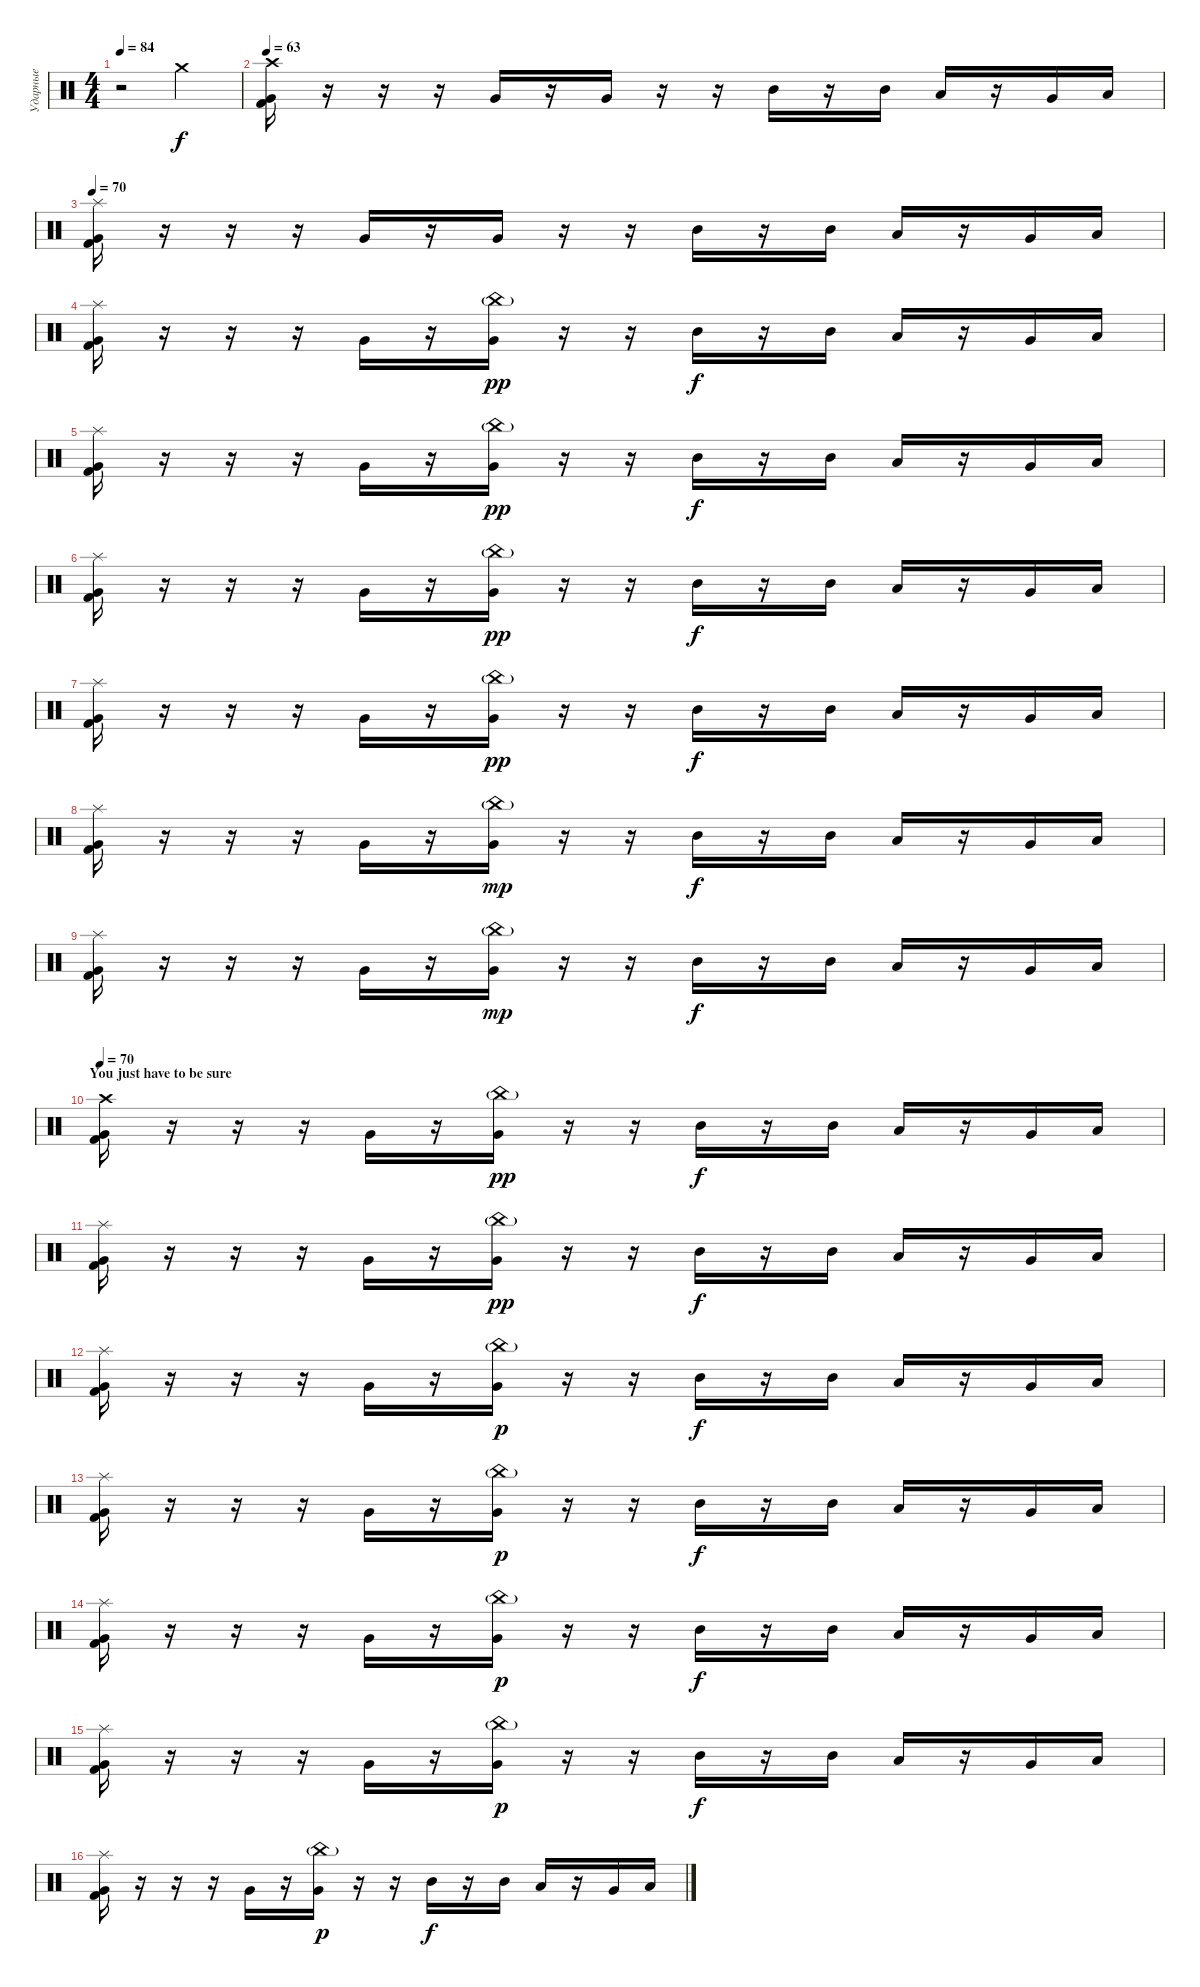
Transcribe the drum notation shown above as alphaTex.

\track ("Ударные" "Ударные") {instrument percussion}
\staff {score}
\articulation defaults
\ts (4 4)
\tempo 84
\tempo 63
\tempo 84
\clef neutral
\ks c
r.2{dy f volume 0} "Crash medium (hit)".2{volume 13} |
\tempo 63
("Crash high (hit)" "Very Low Tom (hit)" "Kick (hit) 2").16 r.16 r.16 r.16 "Very Low Tom (hit)".16 r.16 "Very Low Tom (hit)".16 r.16 r.16 "Mid Tom (hit)".16 r.16 "Mid Tom (hit)".16 "Low Tom (hit)".16 r.16 "Very Low Tom (hit)".16 "Low Tom (hit)".16 |
\tempo 70
("Splash (hit)" "Very Low Tom (hit)" "Kick (hit) 2").16 r.16 r.16 r.16 "Very Low Tom (hit)".16 r.16 "Very Low Tom (hit)".16 r.16 r.16 "Mid Tom (hit)".16 r.16 "Mid Tom (hit)".16 "Low Tom (hit)".16 r.16 "Very Low Tom (hit)".16 "Low Tom (hit)".16 |
("Splash (hit)" "Very Low Tom (hit)" "Kick (hit) 2").16 r.16 r.16 r.16 "Very Low Tom (hit)".16 r.16 ("China (hit)"{g} "Very Low Tom (hit)").16{dy pp} r.16 r.16 "Mid Tom (hit)".16{dy f} r.16 "Mid Tom (hit)".16 "Low Tom (hit)".16 r.16 "Very Low Tom (hit)".16 "Low Tom (hit)".16 |
("Splash (hit)" "Very Low Tom (hit)" "Kick (hit) 2").16 r.16 r.16 r.16 "Very Low Tom (hit)".16 r.16 ("China (hit)"{g} "Very Low Tom (hit)").16{dy pp} r.16 r.16 "Mid Tom (hit)".16{dy f} r.16 "Mid Tom (hit)".16 "Low Tom (hit)".16 r.16 "Very Low Tom (hit)".16 "Low Tom (hit)".16 |
("Splash (hit)" "Very Low Tom (hit)" "Kick (hit) 2").16 r.16 r.16 r.16 "Very Low Tom (hit)".16 r.16 ("China (hit)"{g} "Very Low Tom (hit)").16{dy pp} r.16 r.16 "Mid Tom (hit)".16{dy f} r.16 "Mid Tom (hit)".16 "Low Tom (hit)".16 r.16 "Very Low Tom (hit)".16 "Low Tom (hit)".16 |
("Splash (hit)" "Very Low Tom (hit)" "Kick (hit) 2").16 r.16 r.16 r.16 "Very Low Tom (hit)".16 r.16 ("China (hit)"{g} "Very Low Tom (hit)").16{dy pp} r.16 r.16 "Mid Tom (hit)".16{dy f} r.16 "Mid Tom (hit)".16 "Low Tom (hit)".16 r.16 "Very Low Tom (hit)".16 "Low Tom (hit)".16 |
("Splash (hit)" "Very Low Tom (hit)" "Kick (hit) 2").16 r.16 r.16 r.16 "Very Low Tom (hit)".16 r.16 ("China (hit)"{g} "Very Low Tom (hit)").16{dy mp} r.16 r.16 "Mid Tom (hit)".16{dy f} r.16 "Mid Tom (hit)".16 "Low Tom (hit)".16 r.16 "Very Low Tom (hit)".16 "Low Tom (hit)".16 |
("Splash (hit)" "Very Low Tom (hit)" "Kick (hit) 2").16 r.16 r.16 r.16 "Very Low Tom (hit)".16 r.16 ("China (hit)"{g} "Very Low Tom (hit)").16{dy mp} r.16 r.16 "Mid Tom (hit)".16{dy f} r.16 "Mid Tom (hit)".16 "Low Tom (hit)".16 r.16 "Very Low Tom (hit)".16 "Low Tom (hit)".16 |
\section ("" "You just have to be sure")
\tempo 70
("Crash high (hit)" "Very Low Tom (hit)" "Kick (hit) 2").16 r.16 r.16 r.16 "Very Low Tom (hit)".16 r.16 ("China (hit)"{g} "Very Low Tom (hit)").16{dy pp} r.16 r.16 "Mid Tom (hit)".16{dy f} r.16 "Mid Tom (hit)".16 "Low Tom (hit)".16 r.16 "Very Low Tom (hit)".16 "Low Tom (hit)".16 |
("Splash (hit)" "Very Low Tom (hit)" "Kick (hit) 2").16 r.16 r.16 r.16 "Very Low Tom (hit)".16 r.16 ("China (hit)"{g} "Very Low Tom (hit)").16{dy pp} r.16 r.16 "Mid Tom (hit)".16{dy f} r.16 "Mid Tom (hit)".16 "Low Tom (hit)".16 r.16 "Very Low Tom (hit)".16 "Low Tom (hit)".16 |
("Splash (hit)" "Very Low Tom (hit)" "Kick (hit) 2").16 r.16 r.16 r.16 "Very Low Tom (hit)".16 r.16 ("China (hit)"{g} "Very Low Tom (hit)").16{dy p} r.16 r.16 "Mid Tom (hit)".16{dy f} r.16 "Mid Tom (hit)".16 "Low Tom (hit)".16 r.16 "Very Low Tom (hit)".16 "Low Tom (hit)".16 |
("Splash (hit)" "Very Low Tom (hit)" "Kick (hit) 2").16 r.16 r.16 r.16 "Very Low Tom (hit)".16 r.16 ("China (hit)"{g} "Very Low Tom (hit)").16{dy p} r.16 r.16 "Mid Tom (hit)".16{dy f} r.16 "Mid Tom (hit)".16 "Low Tom (hit)".16 r.16 "Very Low Tom (hit)".16 "Low Tom (hit)".16 |
("Splash (hit)" "Very Low Tom (hit)" "Kick (hit) 2").16 r.16 r.16 r.16 "Very Low Tom (hit)".16 r.16 ("China (hit)"{g} "Very Low Tom (hit)").16{dy p} r.16 r.16 "Mid Tom (hit)".16{dy f} r.16 "Mid Tom (hit)".16 "Low Tom (hit)".16 r.16 "Very Low Tom (hit)".16 "Low Tom (hit)".16 |
("Splash (hit)" "Very Low Tom (hit)" "Kick (hit) 2").16 r.16 r.16 r.16 "Very Low Tom (hit)".16 r.16 ("China (hit)"{g} "Very Low Tom (hit)").16{dy p} r.16 r.16 "Mid Tom (hit)".16{dy f} r.16 "Mid Tom (hit)".16 "Low Tom (hit)".16 r.16 "Very Low Tom (hit)".16 "Low Tom (hit)".16 |
("Splash (hit)" "Very Low Tom (hit)" "Kick (hit) 2").16 r.16 r.16 r.16 "Very Low Tom (hit)".16 r.16 ("China (hit)"{g} "Very Low Tom (hit)").16{dy p} r.16 r.16 "Mid Tom (hit)".16{dy f} r.16 "Mid Tom (hit)".16 "Low Tom (hit)".16 r.16 "Very Low Tom (hit)".16 "Low Tom (hit)".16
